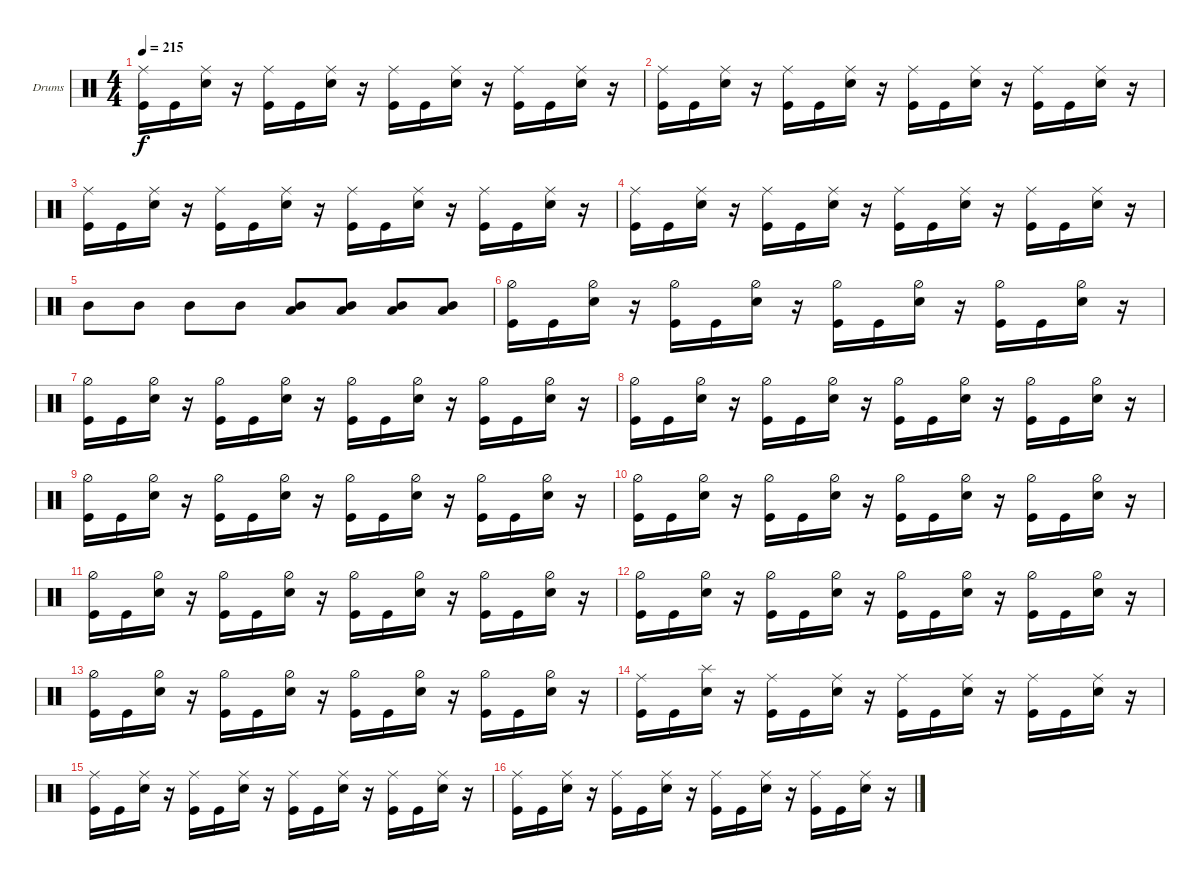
\bracketExtendMode groupsimilarinstruments
\firstSystemTrackNameOrientation horizontal
\otherSystemsTrackNameOrientation horizontal
\track ("Drumkit" "Drums") {instrument percussion}
\staff {score}
\articulation defaults
\ts (4 4)
\tempo 215
\clef neutral
\ks c
("Ride (middle)" "Kick (hit)").16{dy f} "Kick (hit)".16 ("Snare (hit) 2" "Ride (middle)").16 r.16 ("Kick (hit)" "Ride (middle)").16 "Kick (hit)".16 ("Snare (hit) 2" "Ride (middle)").16 r.16 ("Kick (hit)" "Ride (middle)").16 "Kick (hit)".16 ("Snare (hit) 2" "Ride (middle)").16 r.16 ("Kick (hit)" "Ride (middle)").16 "Kick (hit)".16 ("Snare (hit) 2" "Ride (middle)").16 r.16 |
("Ride (middle)" "Kick (hit)").16 "Kick (hit)".16 ("Snare (hit) 2" "Ride (middle)").16 r.16 ("Kick (hit)" "Ride (middle)").16 "Kick (hit)".16 ("Snare (hit) 2" "Ride (middle)").16 r.16 ("Kick (hit)" "Ride (middle)").16 "Kick (hit)".16 ("Snare (hit) 2" "Ride (middle)").16 r.16 ("Kick (hit)" "Ride (middle)").16 "Kick (hit)".16 ("Snare (hit) 2" "Ride (middle)").16 r.16 |
("Ride (middle)" "Kick (hit)").16 "Kick (hit)".16 ("Snare (hit) 2" "Ride (middle)").16 r.16 ("Kick (hit)" "Ride (middle)").16 "Kick (hit)".16 ("Snare (hit) 2" "Ride (middle)").16 r.16 ("Kick (hit)" "Ride (middle)").16 "Kick (hit)".16 ("Snare (hit) 2" "Ride (middle)").16 r.16 ("Kick (hit)" "Ride (middle)").16 "Kick (hit)".16 ("Snare (hit) 2" "Ride (middle)").16 r.16 |
("Ride (middle)" "Kick (hit)").16 "Kick (hit)".16 ("Snare (hit) 2" "Ride (middle)").16 r.16 ("Kick (hit)" "Ride (middle)").16 "Kick (hit)".16 ("Snare (hit) 2" "Ride (middle)").16 r.16 ("Kick (hit)" "Ride (middle)").16 "Kick (hit)".16 ("Snare (hit) 2" "Ride (middle)").16 r.16 ("Kick (hit)" "Ride (middle)").16 "Kick (hit)".16 ("Snare (hit) 2" "Ride (middle)").16 r.16 |
"Mid Tom (hit)".8 "Mid Tom (hit)".8 "Mid Tom (hit)".8 "Mid Tom (hit)".8 ("Mid Tom (hit)" "Low Tom (hit)").8 ("Mid Tom (hit)" "Low Tom (hit)").8 ("Mid Tom (hit)" "Low Tom (hit)").8 ("Mid Tom (hit)" "Low Tom (hit)").8 |
("Kick (hit)" "Hi-Hat (half)").16 "Kick (hit)".16 ("Snare (hit) 2" "Hi-Hat (half)").16 r.16 ("Kick (hit)" "Hi-Hat (half)").16 "Kick (hit)".16 ("Snare (hit) 2" "Hi-Hat (half)").16 r.16 ("Kick (hit)" "Hi-Hat (half)").16 "Kick (hit)".16 ("Snare (hit) 2" "Hi-Hat (half)").16 r.16 ("Kick (hit)" "Hi-Hat (half)").16 "Kick (hit)".16 ("Snare (hit) 2" "Hi-Hat (half)").16 r.16 |
("Kick (hit)" "Hi-Hat (half)").16 "Kick (hit)".16 ("Snare (hit) 2" "Hi-Hat (half)").16 r.16 ("Kick (hit)" "Hi-Hat (half)").16 "Kick (hit)".16 ("Snare (hit) 2" "Hi-Hat (half)").16 r.16 ("Kick (hit)" "Hi-Hat (half)").16 "Kick (hit)".16 ("Snare (hit) 2" "Hi-Hat (half)").16 r.16 ("Kick (hit)" "Hi-Hat (half)").16 "Kick (hit)".16 ("Snare (hit) 2" "Hi-Hat (half)").16 r.16 |
("Kick (hit)" "Hi-Hat (half)").16 "Kick (hit)".16 ("Snare (hit) 2" "Hi-Hat (half)").16 r.16 ("Kick (hit)" "Hi-Hat (half)").16 "Kick (hit)".16 ("Snare (hit) 2" "Hi-Hat (half)").16 r.16 ("Kick (hit)" "Hi-Hat (half)").16 "Kick (hit)".16 ("Snare (hit) 2" "Hi-Hat (half)").16 r.16 ("Kick (hit)" "Hi-Hat (half)").16 "Kick (hit)".16 ("Snare (hit) 2" "Hi-Hat (half)").16 r.16 |
("Kick (hit)" "Hi-Hat (half)").16 "Kick (hit)".16 ("Snare (hit) 2" "Hi-Hat (half)").16 r.16 ("Kick (hit)" "Hi-Hat (half)").16 "Kick (hit)".16 ("Snare (hit) 2" "Hi-Hat (half)").16 r.16 ("Kick (hit)" "Hi-Hat (half)").16 "Kick (hit)".16 ("Snare (hit) 2" "Hi-Hat (half)").16 r.16 ("Kick (hit)" "Hi-Hat (half)").16 "Kick (hit)".16 ("Snare (hit) 2" "Hi-Hat (half)").16 r.16 |
("Kick (hit)" "Hi-Hat (half)").16 "Kick (hit)".16 ("Snare (hit) 2" "Hi-Hat (half)").16 r.16 ("Kick (hit)" "Hi-Hat (half)").16 "Kick (hit)".16 ("Snare (hit) 2" "Hi-Hat (half)").16 r.16 ("Kick (hit)" "Hi-Hat (half)").16 "Kick (hit)".16 ("Snare (hit) 2" "Hi-Hat (half)").16 r.16 ("Kick (hit)" "Hi-Hat (half)").16 "Kick (hit)".16 ("Snare (hit) 2" "Hi-Hat (half)").16 r.16 |
("Kick (hit)" "Hi-Hat (half)").16 "Kick (hit)".16 ("Snare (hit) 2" "Hi-Hat (half)").16 r.16 ("Kick (hit)" "Hi-Hat (half)").16 "Kick (hit)".16 ("Snare (hit) 2" "Hi-Hat (half)").16 r.16 ("Kick (hit)" "Hi-Hat (half)").16 "Kick (hit)".16 ("Snare (hit) 2" "Hi-Hat (half)").16 r.16 ("Kick (hit)" "Hi-Hat (half)").16 "Kick (hit)".16 ("Snare (hit) 2" "Hi-Hat (half)").16 r.16 |
("Kick (hit)" "Hi-Hat (half)").16 "Kick (hit)".16 ("Snare (hit) 2" "Hi-Hat (half)").16 r.16 ("Kick (hit)" "Hi-Hat (half)").16 "Kick (hit)".16 ("Snare (hit) 2" "Hi-Hat (half)").16 r.16 ("Kick (hit)" "Hi-Hat (half)").16 "Kick (hit)".16 ("Snare (hit) 2" "Hi-Hat (half)").16 r.16 ("Kick (hit)" "Hi-Hat (half)").16 "Kick (hit)".16 ("Snare (hit) 2" "Hi-Hat (half)").16 r.16 |
("Kick (hit)" "Hi-Hat (half)").16 "Kick (hit)".16 ("Snare (hit) 2" "Hi-Hat (half)").16 r.16 ("Kick (hit)" "Hi-Hat (half)").16 "Kick (hit)".16 ("Snare (hit) 2" "Hi-Hat (half)").16 r.16 ("Kick (hit)" "Hi-Hat (half)").16 "Kick (hit)".16 ("Snare (hit) 2" "Hi-Hat (half)").16 r.16 ("Kick (hit)" "Hi-Hat (half)").16 "Kick (hit)".16 ("Snare (hit) 2" "Hi-Hat (half)").16 r.16 |
("Ride (middle)" "Kick (hit)").16 "Kick (hit)".16 ("Splash (hit)" "Snare (hit) 2").16 r.16 ("Kick (hit)" "Ride (middle)").16 "Kick (hit)".16 ("Snare (hit) 2" "Ride (middle)").16 r.16 ("Kick (hit)" "Ride (middle)").16 "Kick (hit)".16 ("Snare (hit) 2" "Ride (middle)").16 r.16 ("Kick (hit)" "Ride (middle)").16 "Kick (hit)".16 ("Snare (hit) 2" "Ride (middle)").16 r.16 |
("Ride (middle)" "Kick (hit)").16 "Kick (hit)".16 ("Snare (hit) 2" "Ride (middle)").16 r.16 ("Kick (hit)" "Ride (middle)").16 "Kick (hit)".16 ("Snare (hit) 2" "Ride (middle)").16 r.16 ("Kick (hit)" "Ride (middle)").16 "Kick (hit)".16 ("Snare (hit) 2" "Ride (middle)").16 r.16 ("Kick (hit)" "Ride (middle)").16 "Kick (hit)".16 ("Snare (hit) 2" "Ride (middle)").16 r.16 |
("Ride (middle)" "Kick (hit)").16 "Kick (hit)".16 ("Snare (hit) 2" "Ride (middle)").16 r.16 ("Kick (hit)" "Ride (middle)").16 "Kick (hit)".16 ("Snare (hit) 2" "Ride (middle)").16 r.16 ("Kick (hit)" "Ride (middle)").16 "Kick (hit)".16 ("Snare (hit) 2" "Ride (middle)").16 r.16 ("Kick (hit)" "Ride (middle)").16 "Kick (hit)".16 ("Snare (hit) 2" "Ride (middle)").16 r.16
